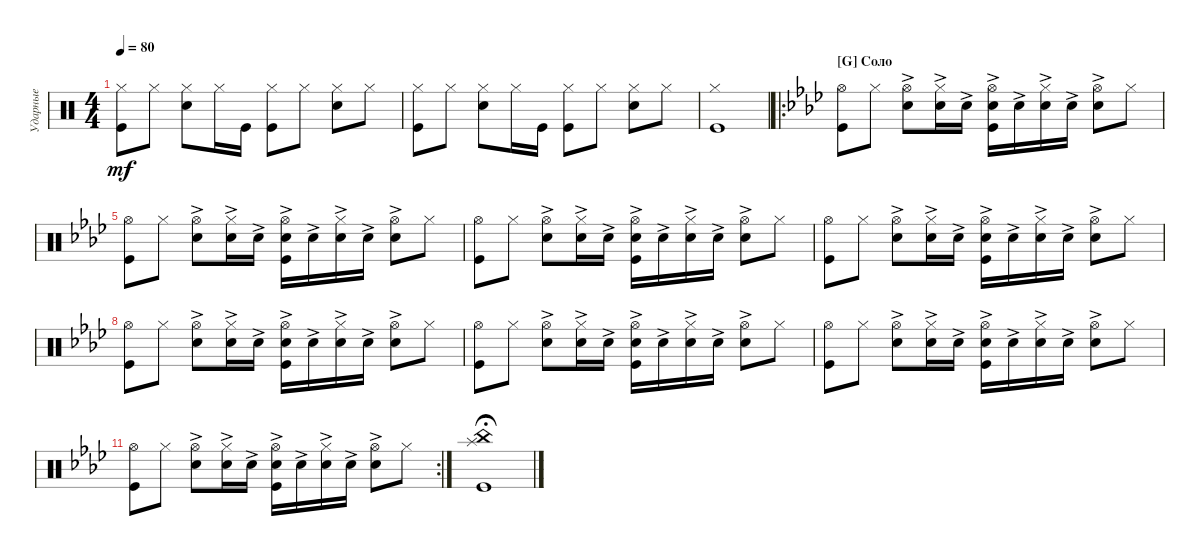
\defaultSystemsLayout 4
\bracketExtendMode groupsimilarinstruments
\multiTrackTrackNamePolicy hidden
\firstSystemTrackNameMode fullname
\otherSystemsTrackNameMode fullname
\otherSystemsTrackNameOrientation horizontal
\defaultBarNumberDisplay FirstOfSystem
\track ("Ударные" "Drums") {instrument percussion}
\staff {score}
\articulation defaults
\ts (4 4)
\tempo 80
\clef neutral
\scale
0.333333
\ks aminor
("Hi-Hat (closed)" "Kick (hit)").8{dy mf} "Hi-Hat (closed)".8 ("Hi-Hat (closed)" "Snare (hit) 2").8 "Hi-Hat (closed)".16 "Kick (hit)".16 ("Hi-Hat (closed)" "Kick (hit)").8 "Hi-Hat (closed)".8 ("Hi-Hat (closed)" "Snare (hit) 2").8 "Hi-Hat (closed)".8 |
\scale
0.333333 ("Hi-Hat (closed)" "Kick (hit)").8 "Hi-Hat (closed)".8 ("Hi-Hat (closed)" "Snare (hit) 2").8 "Hi-Hat (closed)".16 "Kick (hit)".16 ("Hi-Hat (closed)" "Kick (hit)").8 "Hi-Hat (closed)".8 ("Hi-Hat (closed)" "Snare (hit) 2").8 "Hi-Hat (closed)".8 |
\scale
0.333333 ("Hi-Hat (closed)" "Kick (hit)").1 |
\ro
\section ("G" "Соло")
\scale
0.498127
\ks fminor
("Hi-Hat (open)" "Kick (hit)").8 "Hi-Hat (closed)".8 ("Hi-Hat (open)" "Snare (hit) 2"{ac}).8 ("Snare (hit) 2"{ac} "Hi-Hat (closed)").16 "Snare (hit) 2"{ac}.16 ("Snare (hit) 2"{ac} "Kick (hit)" "Hi-Hat (open)").16 "Snare (hit) 2"{ac}.16 ("Snare (hit) 2"{ac} "Hi-Hat (closed)").16 "Snare (hit) 2"{ac}.16 ("Hi-Hat (open)" "Snare (hit) 2"{ac}).8 "Hi-Hat (closed)".8 |
\scale
0.250936 ("Hi-Hat (open)" "Kick (hit)").8 "Hi-Hat (closed)".8 ("Hi-Hat (open)" "Snare (hit) 2"{ac}).8 ("Snare (hit) 2"{ac} "Hi-Hat (closed)").16 "Snare (hit) 2"{ac}.16 ("Snare (hit) 2"{ac} "Kick (hit)" "Hi-Hat (open)").16 "Snare (hit) 2"{ac}.16 ("Snare (hit) 2"{ac} "Hi-Hat (closed)").16 "Snare (hit) 2"{ac}.16 ("Hi-Hat (open)" "Snare (hit) 2"{ac}).8 "Hi-Hat (closed)".8 |
\scale
0.250936 ("Hi-Hat (open)" "Kick (hit)").8 "Hi-Hat (closed)".8 ("Hi-Hat (open)" "Snare (hit) 2"{ac}).8 ("Snare (hit) 2"{ac} "Hi-Hat (closed)").16 "Snare (hit) 2"{ac}.16 ("Snare (hit) 2"{ac} "Kick (hit)" "Hi-Hat (open)").16 "Snare (hit) 2"{ac}.16 ("Snare (hit) 2"{ac} "Hi-Hat (closed)").16 "Snare (hit) 2"{ac}.16 ("Hi-Hat (open)" "Snare (hit) 2"{ac}).8 "Hi-Hat (closed)".8 |
\scale
0.333333 ("Hi-Hat (open)" "Kick (hit)").8 "Hi-Hat (closed)".8 ("Hi-Hat (open)" "Snare (hit) 2"{ac}).8 ("Snare (hit) 2"{ac} "Hi-Hat (closed)").16 "Snare (hit) 2"{ac}.16 ("Snare (hit) 2"{ac} "Kick (hit)" "Hi-Hat (open)").16 "Snare (hit) 2"{ac}.16 ("Snare (hit) 2"{ac} "Hi-Hat (closed)").16 "Snare (hit) 2"{ac}.16 ("Hi-Hat (open)" "Snare (hit) 2"{ac}).8 "Hi-Hat (closed)".8 |
\scale
0.333333 ("Hi-Hat (open)" "Kick (hit)").8 "Hi-Hat (closed)".8 ("Hi-Hat (open)" "Snare (hit) 2"{ac}).8 ("Snare (hit) 2"{ac} "Hi-Hat (closed)").16 "Snare (hit) 2"{ac}.16 ("Snare (hit) 2"{ac} "Kick (hit)" "Hi-Hat (open)").16 "Snare (hit) 2"{ac}.16 ("Snare (hit) 2"{ac} "Hi-Hat (closed)").16 "Snare (hit) 2"{ac}.16 ("Hi-Hat (open)" "Snare (hit) 2"{ac}).8 "Hi-Hat (closed)".8 |
\scale
0.333333 ("Hi-Hat (open)" "Kick (hit)").8 "Hi-Hat (closed)".8 ("Hi-Hat (open)" "Snare (hit) 2"{ac}).8 ("Snare (hit) 2"{ac} "Hi-Hat (closed)").16 "Snare (hit) 2"{ac}.16 ("Snare (hit) 2"{ac} "Kick (hit)" "Hi-Hat (open)").16 "Snare (hit) 2"{ac}.16 ("Snare (hit) 2"{ac} "Hi-Hat (closed)").16 "Snare (hit) 2"{ac}.16 ("Hi-Hat (open)" "Snare (hit) 2"{ac}).8 "Hi-Hat (closed)".8 |
("Hi-Hat (open)" "Kick (hit)").8 "Hi-Hat (closed)".8 ("Hi-Hat (open)" "Snare (hit) 2"{ac}).8 ("Snare (hit) 2"{ac} "Hi-Hat (closed)").16 "Snare (hit) 2"{ac}.16 ("Snare (hit) 2"{ac} "Kick (hit)" "Hi-Hat (open)").16 "Snare (hit) 2"{ac}.16 ("Snare (hit) 2"{ac} "Hi-Hat (closed)").16 "Snare (hit) 2"{ac}.16 ("Hi-Hat (open)" "Snare (hit) 2"{ac}).8 "Hi-Hat (closed)".8 |
\rc 2
("Hi-Hat (open)" "Kick (hit)").8 "Hi-Hat (closed)".8 ("Hi-Hat (open)" "Snare (hit) 2"{ac}).8 ("Snare (hit) 2"{ac} "Hi-Hat (closed)").16 "Snare (hit) 2"{ac}.16 ("Snare (hit) 2"{ac} "Kick (hit)" "Hi-Hat (open)").16 "Snare (hit) 2"{ac}.16 ("Snare (hit) 2"{ac} "Hi-Hat (closed)").16 "Snare (hit) 2"{ac}.16 ("Hi-Hat (open)" "Snare (hit) 2"{ac}).8 "Hi-Hat (closed)".8 |
("Kick (hit)" "China (hit)" "Splash (hit)").1{fermata (medium 0.5)}
